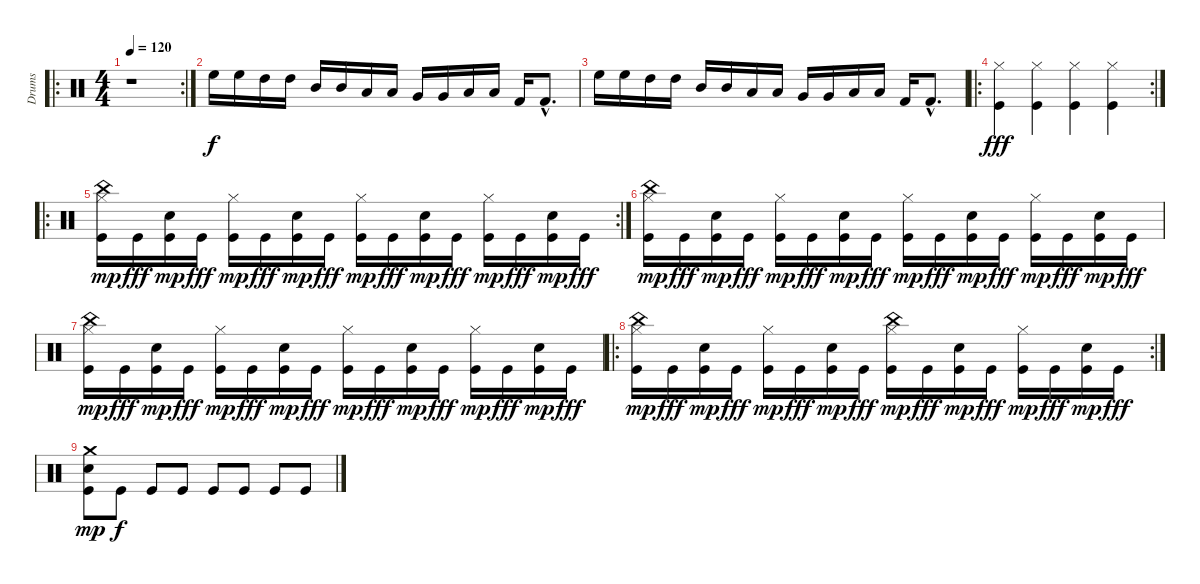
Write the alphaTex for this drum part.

\track ("Drums" "Drums") {instrument percussion}
\staff {score}
\articulation defaults
\ro
\rc 2
\ts (4 4)
\tempo 120
\clef neutral
\ks c
r.1{dy f} |
"High Floor Tom (hit)".16 "High Floor Tom (hit)".16 "High Tom (hit)".16 "High Tom (hit)".16 "Mid Tom (hit)".16 "Mid Tom (hit)".16 "Low Tom (hit)".16 "Low Tom (hit)".16 "Very Low Tom (hit)".16 "Very Low Tom (hit)".16 "Low Floor Tom (hit)".16 "Low Floor Tom (hit)".16 "Kick (hit) 2".16 "Kick (hit) 2"{hac}.8{d} |
"High Floor Tom (hit)".16 "High Floor Tom (hit)".16 "High Tom (hit)".16 "High Tom (hit)".16 "Mid Tom (hit)".16 "Mid Tom (hit)".16 "Low Tom (hit)".16 "Low Tom (hit)".16 "Very Low Tom (hit)".16 "Very Low Tom (hit)".16 "Low Floor Tom (hit)".16 "Low Floor Tom (hit)".16 "Kick (hit) 2".16 "Kick (hit) 2"{hac}.8{d} |
\ro
\rc 2
("Kick (hit)" "Hi-Hat (closed)").4{dy fff} ("Kick (hit)" "Hi-Hat (closed)").4 ("Kick (hit)" "Hi-Hat (closed)").4 ("Kick (hit)" "Hi-Hat (closed)").4 |
\ro
\rc 2
("Kick (hit)" "Hi-Hat (closed)" "China (hit)").16{dy mp} "Kick (hit)".16{dy fff} ("Kick (hit)" "Snare (hit) 2").16{dy mp} "Kick (hit)".16{dy fff} ("Kick (hit)" "Hi-Hat (closed)").16{dy mp} "Kick (hit)".16{dy fff} ("Kick (hit)" "Snare (hit) 2").16{dy mp} "Kick (hit)".16{dy fff} ("Kick (hit)" "Hi-Hat (closed)").16{dy mp} "Kick (hit)".16{dy fff} ("Kick (hit)" "Snare (hit) 2").16{dy mp} "Kick (hit)".16{dy fff} ("Kick (hit)" "Hi-Hat (closed)").16{dy mp} "Kick (hit)".16{dy fff} ("Kick (hit)" "Snare (hit) 2").16{dy mp} "Kick (hit)".16{dy fff} |
("Kick (hit)" "Hi-Hat (closed)" "China (hit)").16{dy mp} "Kick (hit)".16{dy fff} ("Kick (hit)" "Snare (hit) 2").16{dy mp} "Kick (hit)".16{dy fff} ("Kick (hit)" "Hi-Hat (closed)").16{dy mp} "Kick (hit)".16{dy fff} ("Kick (hit)" "Snare (hit) 2").16{dy mp} "Kick (hit)".16{dy fff} ("Kick (hit)" "Hi-Hat (closed)").16{dy mp} "Kick (hit)".16{dy fff} ("Kick (hit)" "Snare (hit) 2").16{dy mp} "Kick (hit)".16{dy fff} ("Kick (hit)" "Hi-Hat (closed)").16{dy mp} "Kick (hit)".16{dy fff} ("Kick (hit)" "Snare (hit) 2").16{dy mp} "Kick (hit)".16{dy fff} |
("Kick (hit)" "Hi-Hat (closed)" "China (hit)").16{dy mp} "Kick (hit)".16{dy fff} ("Kick (hit)" "Snare (hit) 2").16{dy mp} "Kick (hit)".16{dy fff} ("Kick (hit)" "Hi-Hat (closed)").16{dy mp} "Kick (hit)".16{dy fff} ("Kick (hit)" "Snare (hit) 2").16{dy mp} "Kick (hit)".16{dy fff} ("Kick (hit)" "Hi-Hat (closed)").16{dy mp} "Kick (hit)".16{dy fff} ("Kick (hit)" "Snare (hit) 2").16{dy mp} "Kick (hit)".16{dy fff} ("Kick (hit)" "Hi-Hat (closed)").16{dy mp} "Kick (hit)".16{dy fff} ("Kick (hit)" "Snare (hit) 2").16{dy mp} "Kick (hit)".16{dy fff} |
\ro
\rc 2
("Kick (hit)" "Hi-Hat (closed)" "China (hit)").16{dy mp} "Kick (hit)".16{dy fff} ("Kick (hit)" "Snare (hit) 2").16{dy mp} "Kick (hit)".16{dy fff} ("Kick (hit)" "Hi-Hat (closed)").16{dy mp} "Kick (hit)".16{dy fff} ("Kick (hit)" "Snare (hit) 2").16{dy mp} "Kick (hit)".16{dy fff} ("Kick (hit)" "Hi-Hat (closed)" "China (hit)").16{dy mp} "Kick (hit)".16{dy fff} ("Kick (hit)" "Snare (hit) 2").16{dy mp} "Kick (hit)".16{dy fff} ("Kick (hit)" "Hi-Hat (closed)").16{dy mp} "Kick (hit)".16{dy fff} ("Kick (hit)" "Snare (hit) 2").16{dy mp} "Kick (hit)".16{dy fff} |
("Kick (hit)" "Snare (hit) 2" "Crash medium (hit)").8{dy mp} "Kick (hit)".8{dy f} "Kick (hit)".8 "Kick (hit)".8 "Kick (hit)".8 "Kick (hit)".8 "Kick (hit)".8 "Kick (hit)".8
